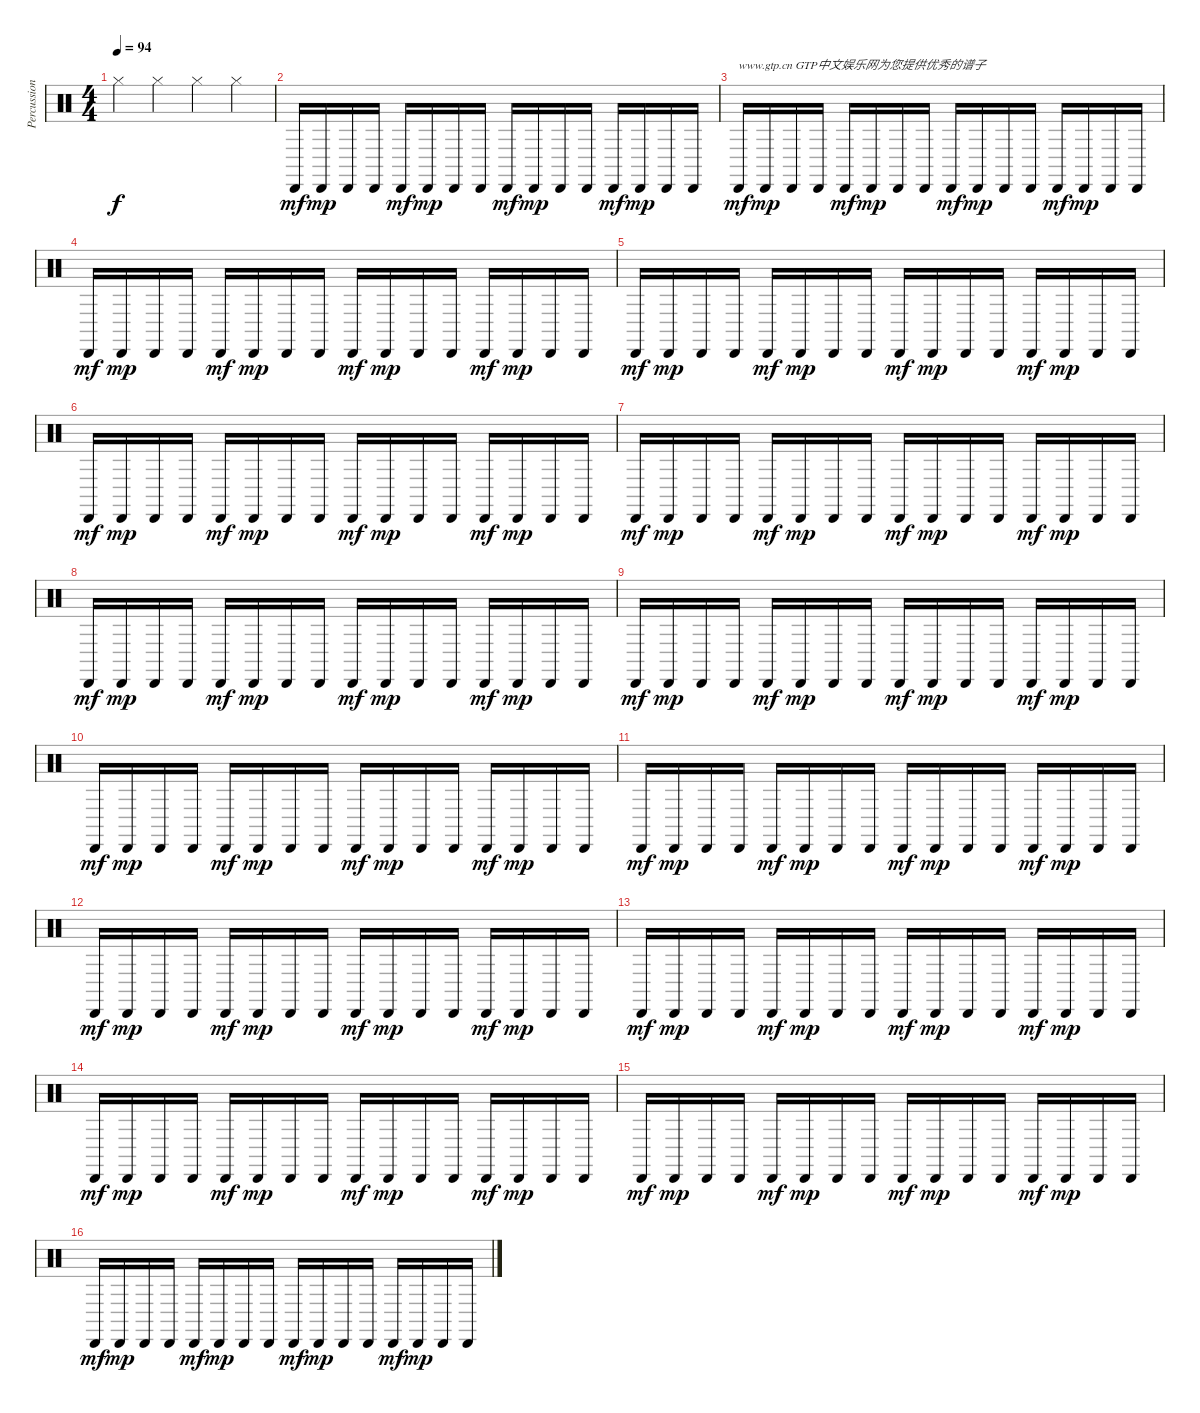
\track ("Percussions" "Percussion") {instrument percussion}
\staff {score}
\articulation defaults
\ts (4 4)
\tempo 94
\clef neutral
\ks c "Hi-Hat (closed)".4{dy f} "Hi-Hat (closed)".4 "Hi-Hat (closed)".4 "Hi-Hat (closed)".4
|
"Cabasa (hit)".16{dy mf} "Cabasa (hit)".16{dy mp} "Cabasa (hit)".16 "Cabasa (hit)".16 "Cabasa (hit)".16{dy mf} "Cabasa (hit)".16{dy mp} "Cabasa (hit)".16 "Cabasa (hit)".16 "Cabasa (hit)".16{dy mf} "Cabasa (hit)".16{dy mp} "Cabasa (hit)".16 "Cabasa (hit)".16 "Cabasa (hit)".16{dy mf} "Cabasa (hit)".16{dy mp} "Cabasa (hit)".16 "Cabasa (hit)".16 |
"Cabasa (hit)".16{txt "www.gtp.cn GTP中文娱乐网为您提供优秀的谱子" dy mf} "Cabasa (hit)".16{dy mp} "Cabasa (hit)".16 "Cabasa (hit)".16 "Cabasa (hit)".16{dy mf} "Cabasa (hit)".16{dy mp} "Cabasa (hit)".16 "Cabasa (hit)".16 "Cabasa (hit)".16{dy mf} "Cabasa (hit)".16{dy mp} "Cabasa (hit)".16 "Cabasa (hit)".16 "Cabasa (hit)".16{dy mf} "Cabasa (hit)".16{dy mp} "Cabasa (hit)".16 "Cabasa (hit)".16 |
"Cabasa (hit)".16{dy mf} "Cabasa (hit)".16{dy mp} "Cabasa (hit)".16 "Cabasa (hit)".16 "Cabasa (hit)".16{dy mf} "Cabasa (hit)".16{dy mp} "Cabasa (hit)".16 "Cabasa (hit)".16 "Cabasa (hit)".16{dy mf} "Cabasa (hit)".16{dy mp} "Cabasa (hit)".16 "Cabasa (hit)".16 "Cabasa (hit)".16{dy mf} "Cabasa (hit)".16{dy mp} "Cabasa (hit)".16 "Cabasa (hit)".16 |
"Cabasa (hit)".16{dy mf} "Cabasa (hit)".16{dy mp} "Cabasa (hit)".16 "Cabasa (hit)".16 "Cabasa (hit)".16{dy mf} "Cabasa (hit)".16{dy mp} "Cabasa (hit)".16 "Cabasa (hit)".16 "Cabasa (hit)".16{dy mf} "Cabasa (hit)".16{dy mp} "Cabasa (hit)".16 "Cabasa (hit)".16 "Cabasa (hit)".16{dy mf} "Cabasa (hit)".16{dy mp} "Cabasa (hit)".16 "Cabasa (hit)".16 |
"Cabasa (hit)".16{dy mf} "Cabasa (hit)".16{dy mp} "Cabasa (hit)".16 "Cabasa (hit)".16 "Cabasa (hit)".16{dy mf} "Cabasa (hit)".16{dy mp} "Cabasa (hit)".16 "Cabasa (hit)".16 "Cabasa (hit)".16{dy mf} "Cabasa (hit)".16{dy mp} "Cabasa (hit)".16 "Cabasa (hit)".16 "Cabasa (hit)".16{dy mf} "Cabasa (hit)".16{dy mp} "Cabasa (hit)".16 "Cabasa (hit)".16 |
"Cabasa (hit)".16{dy mf} "Cabasa (hit)".16{dy mp} "Cabasa (hit)".16 "Cabasa (hit)".16 "Cabasa (hit)".16{dy mf} "Cabasa (hit)".16{dy mp} "Cabasa (hit)".16 "Cabasa (hit)".16 "Cabasa (hit)".16{dy mf} "Cabasa (hit)".16{dy mp} "Cabasa (hit)".16 "Cabasa (hit)".16 "Cabasa (hit)".16{dy mf} "Cabasa (hit)".16{dy mp} "Cabasa (hit)".16 "Cabasa (hit)".16 |
"Cabasa (hit)".16{dy mf} "Cabasa (hit)".16{dy mp} "Cabasa (hit)".16 "Cabasa (hit)".16 "Cabasa (hit)".16{dy mf} "Cabasa (hit)".16{dy mp} "Cabasa (hit)".16 "Cabasa (hit)".16 "Cabasa (hit)".16{dy mf} "Cabasa (hit)".16{dy mp} "Cabasa (hit)".16 "Cabasa (hit)".16 "Cabasa (hit)".16{dy mf} "Cabasa (hit)".16{dy mp} "Cabasa (hit)".16 "Cabasa (hit)".16 |
"Cabasa (hit)".16{dy mf} "Cabasa (hit)".16{dy mp} "Cabasa (hit)".16 "Cabasa (hit)".16 "Cabasa (hit)".16{dy mf} "Cabasa (hit)".16{dy mp} "Cabasa (hit)".16 "Cabasa (hit)".16 "Cabasa (hit)".16{dy mf} "Cabasa (hit)".16{dy mp} "Cabasa (hit)".16 "Cabasa (hit)".16 "Cabasa (hit)".16{dy mf} "Cabasa (hit)".16{dy mp} "Cabasa (hit)".16 "Cabasa (hit)".16 |
"Cabasa (hit)".16{dy mf} "Cabasa (hit)".16{dy mp} "Cabasa (hit)".16 "Cabasa (hit)".16 "Cabasa (hit)".16{dy mf} "Cabasa (hit)".16{dy mp} "Cabasa (hit)".16 "Cabasa (hit)".16 "Cabasa (hit)".16{dy mf} "Cabasa (hit)".16{dy mp} "Cabasa (hit)".16 "Cabasa (hit)".16 "Cabasa (hit)".16{dy mf} "Cabasa (hit)".16{dy mp} "Cabasa (hit)".16 "Cabasa (hit)".16 |
"Cabasa (hit)".16{dy mf} "Cabasa (hit)".16{dy mp} "Cabasa (hit)".16 "Cabasa (hit)".16 "Cabasa (hit)".16{dy mf} "Cabasa (hit)".16{dy mp} "Cabasa (hit)".16 "Cabasa (hit)".16 "Cabasa (hit)".16{dy mf} "Cabasa (hit)".16{dy mp} "Cabasa (hit)".16 "Cabasa (hit)".16 "Cabasa (hit)".16{dy mf} "Cabasa (hit)".16{dy mp} "Cabasa (hit)".16 "Cabasa (hit)".16 |
"Cabasa (hit)".16{dy mf} "Cabasa (hit)".16{dy mp} "Cabasa (hit)".16 "Cabasa (hit)".16 "Cabasa (hit)".16{dy mf} "Cabasa (hit)".16{dy mp} "Cabasa (hit)".16 "Cabasa (hit)".16 "Cabasa (hit)".16{dy mf} "Cabasa (hit)".16{dy mp} "Cabasa (hit)".16 "Cabasa (hit)".16 "Cabasa (hit)".16{dy mf} "Cabasa (hit)".16{dy mp} "Cabasa (hit)".16 "Cabasa (hit)".16 |
"Cabasa (hit)".16{dy mf} "Cabasa (hit)".16{dy mp} "Cabasa (hit)".16 "Cabasa (hit)".16 "Cabasa (hit)".16{dy mf} "Cabasa (hit)".16{dy mp} "Cabasa (hit)".16 "Cabasa (hit)".16 "Cabasa (hit)".16{dy mf} "Cabasa (hit)".16{dy mp} "Cabasa (hit)".16 "Cabasa (hit)".16 "Cabasa (hit)".16{dy mf} "Cabasa (hit)".16{dy mp} "Cabasa (hit)".16 "Cabasa (hit)".16 |
"Cabasa (hit)".16{dy mf} "Cabasa (hit)".16{dy mp} "Cabasa (hit)".16 "Cabasa (hit)".16 "Cabasa (hit)".16{dy mf} "Cabasa (hit)".16{dy mp} "Cabasa (hit)".16 "Cabasa (hit)".16 "Cabasa (hit)".16{dy mf} "Cabasa (hit)".16{dy mp} "Cabasa (hit)".16 "Cabasa (hit)".16 "Cabasa (hit)".16{dy mf} "Cabasa (hit)".16{dy mp} "Cabasa (hit)".16 "Cabasa (hit)".16 |
"Cabasa (hit)".16{dy mf} "Cabasa (hit)".16{dy mp} "Cabasa (hit)".16 "Cabasa (hit)".16 "Cabasa (hit)".16{dy mf} "Cabasa (hit)".16{dy mp} "Cabasa (hit)".16 "Cabasa (hit)".16 "Cabasa (hit)".16{dy mf} "Cabasa (hit)".16{dy mp} "Cabasa (hit)".16 "Cabasa (hit)".16 "Cabasa (hit)".16{dy mf} "Cabasa (hit)".16{dy mp} "Cabasa (hit)".16 "Cabasa (hit)".16 |
"Cabasa (hit)".16{dy mf} "Cabasa (hit)".16{dy mp} "Cabasa (hit)".16 "Cabasa (hit)".16 "Cabasa (hit)".16{dy mf} "Cabasa (hit)".16{dy mp} "Cabasa (hit)".16 "Cabasa (hit)".16 "Cabasa (hit)".16{dy mf} "Cabasa (hit)".16{dy mp} "Cabasa (hit)".16 "Cabasa (hit)".16 "Cabasa (hit)".16{dy mf} "Cabasa (hit)".16{dy mp} "Cabasa (hit)".16 "Cabasa (hit)".16
